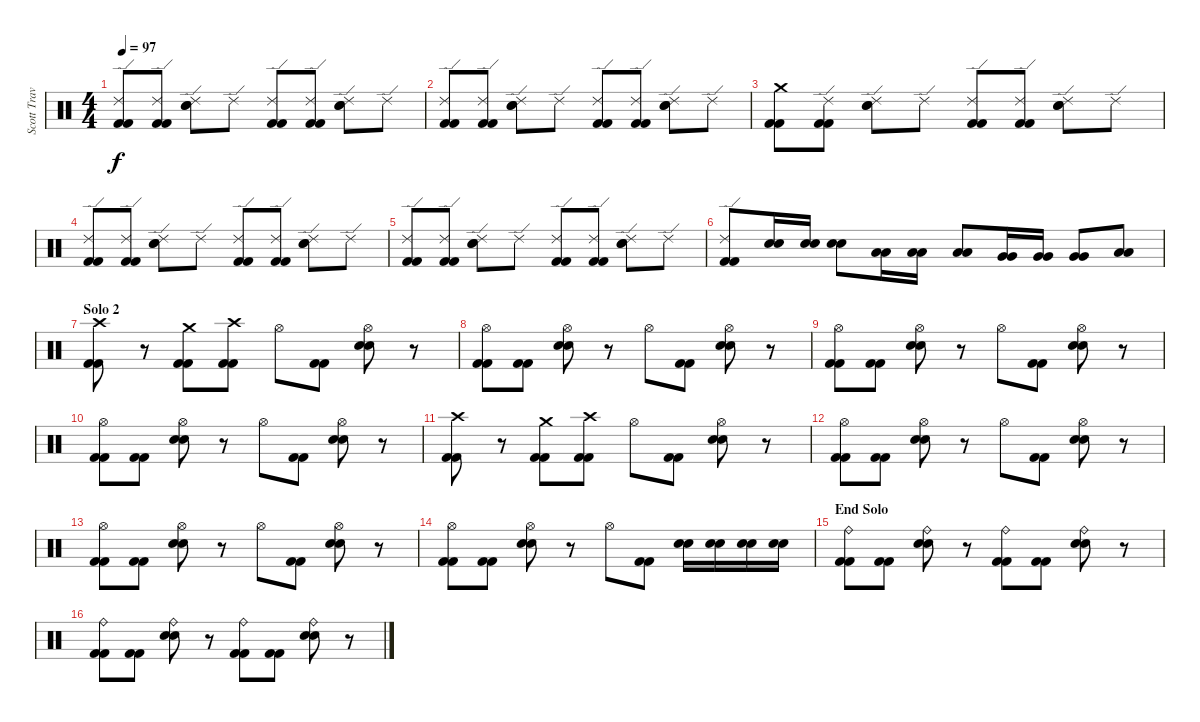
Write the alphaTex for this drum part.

\track ("Scott Travis" "Scott Trav") {instrument percussion}
\staff {score}
\articulation defaults
\ts (4 4)
\tempo 97
\clef neutral
\ks c
("Ride (edge) 2" "Kick (hit) 2" "Kick (hit) 2").8{dy f} ("Ride (edge) 2" "Kick (hit) 2" "Kick (hit) 2").8 ("Ride (edge) 2" "Snare (hit) 2" "Snare (hit) 2").8 "Ride (edge) 2".8 ("Ride (edge) 2" "Kick (hit) 2" "Kick (hit) 2").8 ("Ride (edge) 2" "Kick (hit) 2" "Kick (hit) 2").8 ("Ride (edge) 2" "Snare (hit) 2" "Snare (hit) 2").8 "Ride (edge) 2".8 |
("Ride (edge) 2" "Kick (hit) 2" "Kick (hit) 2").8 ("Ride (edge) 2" "Kick (hit) 2" "Kick (hit) 2").8 ("Ride (edge) 2" "Snare (hit) 2" "Snare (hit) 2").8 "Ride (edge) 2".8 ("Ride (edge) 2" "Kick (hit) 2" "Kick (hit) 2").8 ("Ride (edge) 2" "Kick (hit) 2" "Kick (hit) 2").8 ("Ride (edge) 2" "Snare (hit) 2" "Snare (hit) 2").8 "Ride (edge) 2".8 |
("Crash medium (hit)" "Kick (hit) 2" "Kick (hit) 2").8 ("Ride (edge) 2" "Kick (hit) 2" "Kick (hit) 2").8 ("Ride (edge) 2" "Snare (hit) 2" "Snare (hit) 2").8 "Ride (edge) 2".8 ("Ride (edge) 2" "Kick (hit) 2" "Kick (hit) 2").8 ("Ride (edge) 2" "Kick (hit) 2" "Kick (hit) 2").8 ("Ride (edge) 2" "Snare (hit) 2" "Snare (hit) 2").8 "Ride (edge) 2".8 |
("Ride (edge) 2" "Kick (hit) 2" "Kick (hit) 2").8 ("Ride (edge) 2" "Kick (hit) 2" "Kick (hit) 2").8 ("Ride (edge) 2" "Snare (hit) 2" "Snare (hit) 2").8 "Ride (edge) 2".8 ("Ride (edge) 2" "Kick (hit) 2" "Kick (hit) 2").8 ("Ride (edge) 2" "Kick (hit) 2" "Kick (hit) 2").8 ("Ride (edge) 2" "Snare (hit) 2" "Snare (hit) 2").8 "Ride (edge) 2".8 |
("Ride (edge) 2" "Kick (hit) 2" "Kick (hit) 2").8 ("Ride (edge) 2" "Kick (hit) 2" "Kick (hit) 2").8 ("Ride (edge) 2" "Snare (hit) 2" "Snare (hit) 2").8 "Ride (edge) 2".8 ("Ride (edge) 2" "Kick (hit) 2" "Kick (hit) 2").8 ("Ride (edge) 2" "Kick (hit) 2" "Kick (hit) 2").8 ("Ride (edge) 2" "Snare (hit) 2" "Snare (hit) 2").8 "Ride (edge) 2".8 |
("Ride (edge) 2" "Kick (hit) 2" "Kick (hit) 2").8 ("Snare (hit) 2" "Snare (hit) 2").16 ("Snare (hit) 2" "Snare (hit) 2").16 ("Snare (hit) 2" "Snare (hit) 2").8 ("Low Tom (hit)" "Low Tom (hit)").16 ("Low Tom (hit)" "Low Tom (hit)").16 ("Low Tom (hit)" "Low Tom (hit)").8 ("Very Low Tom (hit)" "Very Low Tom (hit)").16 ("Very Low Tom (hit)" "Very Low Tom (hit)").16 ("Very Low Tom (hit)" "Very Low Tom (hit)").8 ("Low Floor Tom (hit)" "Low Floor Tom (hit)").8 |
\section ("" "Solo 2")
("Crash high (hit)" "Kick (hit) 2" "Kick (hit) 2").8 r.8 ("Crash medium (hit)" "Kick (hit) 2" "Kick (hit) 2").8 ("Crash high (hit)" "Kick (hit) 2" "Kick (hit) 2").8 "Hi-Hat (open)".8 ("Kick (hit) 2" "Kick (hit) 2").8 ("Hi-Hat (open)" "Snare (hit) 2" "Snare (hit) 2").8 r.8 |
("Hi-Hat (open)" "Kick (hit) 2" "Kick (hit) 2").8 ("Kick (hit) 2" "Kick (hit) 2").8 ("Hi-Hat (open)" "Snare (hit) 2" "Snare (hit) 2").8 r.8 "Hi-Hat (open)".8 ("Kick (hit) 2" "Kick (hit) 2").8 ("Hi-Hat (open)" "Snare (hit) 2" "Snare (hit) 2").8 r.8 |
("Hi-Hat (open)" "Kick (hit) 2" "Kick (hit) 2").8 ("Kick (hit) 2" "Kick (hit) 2").8 ("Hi-Hat (open)" "Snare (hit) 2" "Snare (hit) 2").8 r.8 "Hi-Hat (open)".8 ("Kick (hit) 2" "Kick (hit) 2").8 ("Hi-Hat (open)" "Snare (hit) 2" "Snare (hit) 2").8 r.8 |
("Hi-Hat (open)" "Kick (hit) 2" "Kick (hit) 2").8 ("Kick (hit) 2" "Kick (hit) 2").8 ("Hi-Hat (open)" "Snare (hit) 2" "Snare (hit) 2").8 r.8 "Hi-Hat (open)".8 ("Kick (hit) 2" "Kick (hit) 2").8 ("Hi-Hat (open)" "Snare (hit) 2" "Snare (hit) 2").8 r.8 |
("Crash high (hit)" "Kick (hit) 2" "Kick (hit) 2").8 r.8 ("Crash medium (hit)" "Kick (hit) 2" "Kick (hit) 2").8 ("Crash high (hit)" "Kick (hit) 2" "Kick (hit) 2").8 "Hi-Hat (open)".8 ("Kick (hit) 2" "Kick (hit) 2").8 ("Hi-Hat (open)" "Snare (hit) 2" "Snare (hit) 2").8 r.8 |
("Hi-Hat (open)" "Kick (hit) 2" "Kick (hit) 2").8 ("Kick (hit) 2" "Kick (hit) 2").8 ("Hi-Hat (open)" "Snare (hit) 2" "Snare (hit) 2").8 r.8 "Hi-Hat (open)".8 ("Kick (hit) 2" "Kick (hit) 2").8 ("Hi-Hat (open)" "Snare (hit) 2" "Snare (hit) 2").8 r.8 |
("Hi-Hat (open)" "Kick (hit) 2" "Kick (hit) 2").8 ("Kick (hit) 2" "Kick (hit) 2").8 ("Hi-Hat (open)" "Snare (hit) 2" "Snare (hit) 2").8 r.8 "Hi-Hat (open)".8 ("Kick (hit) 2" "Kick (hit) 2").8 ("Hi-Hat (open)" "Snare (hit) 2" "Snare (hit) 2").8 r.8 |
("Hi-Hat (open)" "Kick (hit) 2" "Kick (hit) 2").8 ("Kick (hit) 2" "Kick (hit) 2").8 ("Hi-Hat (open)" "Snare (hit) 2" "Snare (hit) 2").8 r.8 "Hi-Hat (open)".8 ("Kick (hit) 2" "Kick (hit) 2").8 ("Snare (hit) 2" "Snare (hit) 2").16 ("Snare (hit) 2" "Snare (hit) 2").16 ("Snare (hit) 2" "Snare (hit) 2").16 ("Snare (hit) 2" "Snare (hit) 2").16 |
\section ("" "End Solo")
("Ride (bell)" "Kick (hit) 2" "Kick (hit) 2").8 ("Kick (hit) 2" "Kick (hit) 2").8 ("Ride (bell)" "Snare (hit) 2" "Snare (hit) 2").8 r.8 ("Ride (bell)" "Kick (hit) 2" "Kick (hit) 2").8 ("Kick (hit) 2" "Kick (hit) 2").8 ("Ride (bell)" "Snare (hit) 2" "Snare (hit) 2").8 r.8 |
("Ride (bell)" "Kick (hit) 2" "Kick (hit) 2").8 ("Kick (hit) 2" "Kick (hit) 2").8 ("Ride (bell)" "Snare (hit) 2" "Snare (hit) 2").8 r.8 ("Ride (bell)" "Kick (hit) 2" "Kick (hit) 2").8 ("Kick (hit) 2" "Kick (hit) 2").8 ("Ride (bell)" "Snare (hit) 2" "Snare (hit) 2").8 r.8
